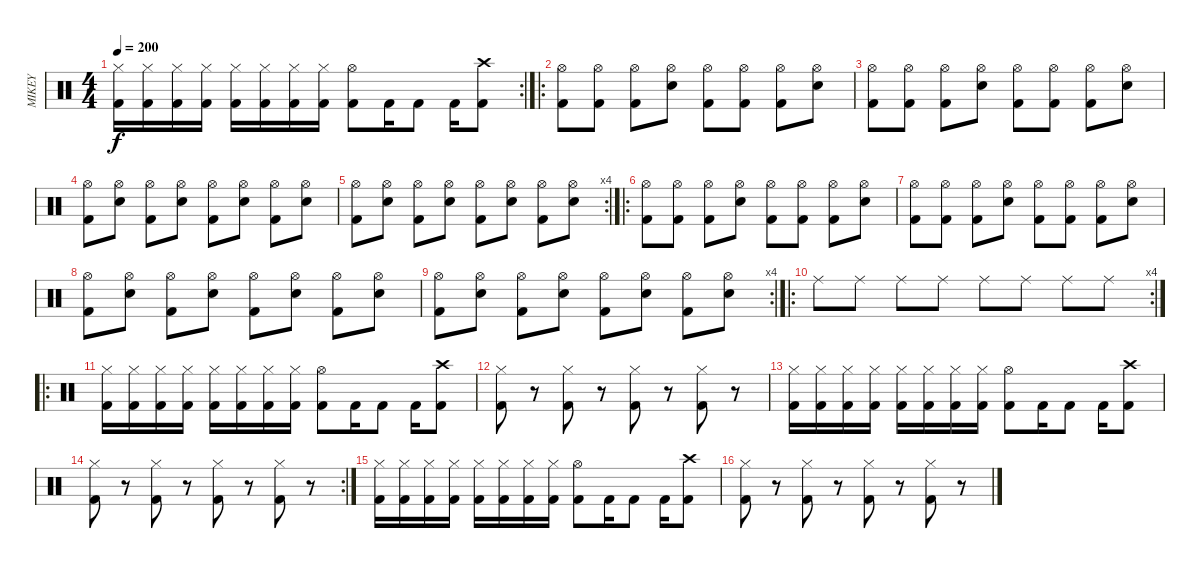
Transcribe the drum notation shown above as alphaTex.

\track ("MIKEY" "MIKEY") {instrument percussion}
\staff {score}
\articulation defaults
\rc 2
\ts (4 4)
\tempo 200
\clef neutral
\ks c
("Hi-Hat (closed)" "Kick (hit) 2").16{dy f} ("Hi-Hat (closed)" "Kick (hit) 2").16 ("Hi-Hat (closed)" "Kick (hit) 2").16 ("Hi-Hat (closed)" "Kick (hit) 2").16 ("Hi-Hat (closed)" "Kick (hit) 2").16 ("Hi-Hat (closed)" "Kick (hit) 2").16 ("Hi-Hat (closed)" "Kick (hit) 2").16 ("Hi-Hat (closed)" "Kick (hit) 2").16 ("Hi-Hat (open)" "Kick (hit) 2").8 "Kick (hit) 2".16 "Kick (hit) 2".8 "Kick (hit) 2".16 ("Crash high (hit)" "Kick (hit) 2").8 |
\ro
("Hi-Hat (open)" "Kick (hit) 2").8 ("Hi-Hat (open)" "Kick (hit) 2").8 ("Hi-Hat (open)" "Kick (hit) 2").8 ("Hi-Hat (open)" "Electric Snare (hit)").8 ("Hi-Hat (open)" "Kick (hit) 2").8 ("Hi-Hat (open)" "Kick (hit) 2").8 ("Hi-Hat (open)" "Kick (hit) 2").8 ("Hi-Hat (open)" "Electric Snare (hit)").8 |
("Hi-Hat (open)" "Kick (hit) 2").8 ("Hi-Hat (open)" "Kick (hit) 2").8 ("Hi-Hat (open)" "Kick (hit) 2").8 ("Hi-Hat (open)" "Electric Snare (hit)").8 ("Hi-Hat (open)" "Kick (hit) 2").8 ("Hi-Hat (open)" "Kick (hit) 2").8 ("Hi-Hat (open)" "Kick (hit) 2").8 ("Hi-Hat (open)" "Electric Snare (hit)").8 |
("Hi-Hat (open)" "Kick (hit) 2").8 ("Hi-Hat (open)" "Electric Snare (hit)").8 ("Hi-Hat (open)" "Kick (hit) 2").8 ("Hi-Hat (open)" "Electric Snare (hit)").8 ("Hi-Hat (open)" "Kick (hit) 2").8 ("Hi-Hat (open)" "Electric Snare (hit)").8 ("Hi-Hat (open)" "Kick (hit) 2").8 ("Hi-Hat (open)" "Electric Snare (hit)").8 |
\rc 4
("Hi-Hat (open)" "Kick (hit) 2").8 ("Hi-Hat (open)" "Electric Snare (hit)").8 ("Hi-Hat (open)" "Kick (hit) 2").8 ("Hi-Hat (open)" "Electric Snare (hit)").8 ("Hi-Hat (open)" "Kick (hit) 2").8 ("Hi-Hat (open)" "Electric Snare (hit)").8 ("Hi-Hat (open)" "Kick (hit) 2").8 ("Hi-Hat (open)" "Electric Snare (hit)").8 |
\ro
("Hi-Hat (open)" "Kick (hit) 2").8 ("Hi-Hat (open)" "Kick (hit) 2").8 ("Hi-Hat (open)" "Kick (hit) 2").8 ("Hi-Hat (open)" "Electric Snare (hit)").8 ("Hi-Hat (open)" "Kick (hit) 2").8 ("Hi-Hat (open)" "Kick (hit) 2").8 ("Hi-Hat (open)" "Kick (hit) 2").8 ("Hi-Hat (open)" "Electric Snare (hit)").8 |
("Hi-Hat (open)" "Kick (hit) 2").8 ("Hi-Hat (open)" "Kick (hit) 2").8 ("Hi-Hat (open)" "Kick (hit) 2").8 ("Hi-Hat (open)" "Electric Snare (hit)").8 ("Hi-Hat (open)" "Kick (hit) 2").8 ("Hi-Hat (open)" "Kick (hit) 2").8 ("Hi-Hat (open)" "Kick (hit) 2").8 ("Hi-Hat (open)" "Electric Snare (hit)").8 |
("Hi-Hat (open)" "Kick (hit) 2").8 ("Hi-Hat (open)" "Electric Snare (hit)").8 ("Hi-Hat (open)" "Kick (hit) 2").8 ("Hi-Hat (open)" "Electric Snare (hit)").8 ("Hi-Hat (open)" "Kick (hit) 2").8 ("Hi-Hat (open)" "Electric Snare (hit)").8 ("Hi-Hat (open)" "Kick (hit) 2").8 ("Hi-Hat (open)" "Electric Snare (hit)").8 |
\rc 4
("Hi-Hat (open)" "Kick (hit) 2").8 ("Hi-Hat (open)" "Electric Snare (hit)").8 ("Hi-Hat (open)" "Kick (hit) 2").8 ("Hi-Hat (open)" "Electric Snare (hit)").8 ("Hi-Hat (open)" "Kick (hit) 2").8 ("Hi-Hat (open)" "Electric Snare (hit)").8 ("Hi-Hat (open)" "Kick (hit) 2").8 ("Hi-Hat (open)" "Electric Snare (hit)").8 |
\ro
\rc 4 "Ride (middle)".8 "Ride (middle)".8 "Ride (middle)".8 "Ride (middle)".8 "Ride (middle)".8 "Ride (middle)".8 "Ride (middle)".8 "Ride (middle)".8
|
\ro
("Hi-Hat (closed)" "Kick (hit) 2").16 ("Hi-Hat (closed)" "Kick (hit) 2").16 ("Hi-Hat (closed)" "Kick (hit) 2").16 ("Hi-Hat (closed)" "Kick (hit) 2").16 ("Hi-Hat (closed)" "Kick (hit) 2").16 ("Hi-Hat (closed)" "Kick (hit) 2").16 ("Hi-Hat (closed)" "Kick (hit) 2").16 ("Hi-Hat (closed)" "Kick (hit) 2").16 ("Hi-Hat (open)" "Kick (hit) 2").8 "Kick (hit) 2".16 "Kick (hit) 2".8 "Kick (hit) 2".16 ("Crash high (hit)" "Kick (hit) 2").8 |
("Hi-Hat (closed)" "Kick (hit) 2").8 r.8 ("Hi-Hat (closed)" "Kick (hit) 2").8 r.8 ("Hi-Hat (closed)" "Kick (hit) 2").8 r.8 ("Hi-Hat (closed)" "Kick (hit) 2").8 r.8 |
("Hi-Hat (closed)" "Kick (hit) 2").16 ("Hi-Hat (closed)" "Kick (hit) 2").16 ("Hi-Hat (closed)" "Kick (hit) 2").16 ("Hi-Hat (closed)" "Kick (hit) 2").16 ("Hi-Hat (closed)" "Kick (hit) 2").16 ("Hi-Hat (closed)" "Kick (hit) 2").16 ("Hi-Hat (closed)" "Kick (hit) 2").16 ("Hi-Hat (closed)" "Kick (hit) 2").16 ("Hi-Hat (open)" "Kick (hit) 2").8 "Kick (hit) 2".16 "Kick (hit) 2".8 "Kick (hit) 2".16 ("Crash high (hit)" "Kick (hit) 2").8 |
\rc 2
("Hi-Hat (closed)" "Kick (hit) 2").8 r.8 ("Hi-Hat (closed)" "Kick (hit) 2").8 r.8 ("Hi-Hat (closed)" "Kick (hit) 2").8 r.8 ("Hi-Hat (closed)" "Kick (hit) 2").8 r.8 |
("Hi-Hat (closed)" "Kick (hit) 2").16 ("Hi-Hat (closed)" "Kick (hit) 2").16 ("Hi-Hat (closed)" "Kick (hit) 2").16 ("Hi-Hat (closed)" "Kick (hit) 2").16 ("Hi-Hat (closed)" "Kick (hit) 2").16 ("Hi-Hat (closed)" "Kick (hit) 2").16 ("Hi-Hat (closed)" "Kick (hit) 2").16 ("Hi-Hat (closed)" "Kick (hit) 2").16 ("Hi-Hat (open)" "Kick (hit) 2").8 "Kick (hit) 2".16 "Kick (hit) 2".8 "Kick (hit) 2".16 ("Crash high (hit)" "Kick (hit) 2").8 |
("Hi-Hat (closed)" "Kick (hit) 2").8 r.8 ("Hi-Hat (closed)" "Kick (hit) 2").8 r.8 ("Hi-Hat (closed)" "Kick (hit) 2").8 r.8 ("Hi-Hat (closed)" "Kick (hit) 2").8 r.8
